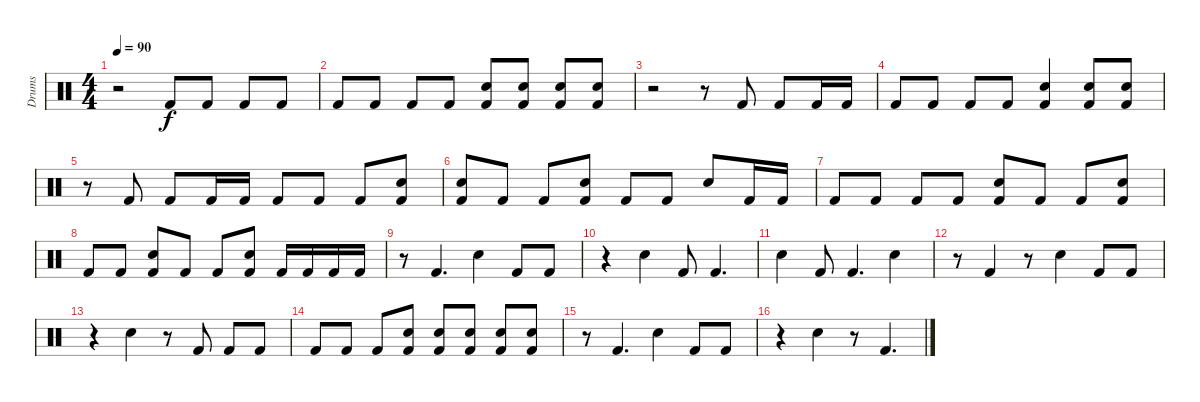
\track ("Drums" "Drums") {instrument percussion}
\staff {score}
\articulation defaults
\ts (4 4)
\tempo 90
\clef neutral
\ks c
r.2{dy f} "Kick (hit) 2".8 "Kick (hit) 2".8 "Kick (hit) 2".8 "Kick (hit) 2".8 |
"Kick (hit) 2".8 "Kick (hit) 2".8 "Kick (hit) 2".8 "Kick (hit) 2".8 ("Kick (hit) 2" "Snare (hit) 2").8 ("Kick (hit) 2" "Snare (hit) 2").8 ("Kick (hit) 2" "Snare (hit) 2").8 ("Kick (hit) 2" "Snare (hit) 2").8 |
r.2 r.8 "Kick (hit) 2".8 "Kick (hit) 2".8 "Kick (hit) 2".16 "Kick (hit) 2".16 |
"Kick (hit) 2".8 "Kick (hit) 2".8 "Kick (hit) 2".8 "Kick (hit) 2".8 ("Kick (hit) 2" "Snare (hit) 2").4 ("Kick (hit) 2" "Snare (hit) 2").8 ("Kick (hit) 2" "Snare (hit) 2").8 |
r.8 "Kick (hit) 2".8 "Kick (hit) 2".8 "Kick (hit) 2".16 "Kick (hit) 2".16 "Kick (hit) 2".8 "Kick (hit) 2".8 "Kick (hit) 2".8 ("Kick (hit) 2" "Snare (hit) 2").8 |
("Kick (hit) 2" "Snare (hit) 2").8 "Kick (hit) 2".8 "Kick (hit) 2".8 ("Kick (hit) 2" "Snare (hit) 2").8 "Kick (hit) 2".8 "Kick (hit) 2".8 "Snare (hit) 2".8 "Kick (hit) 2".16 "Kick (hit) 2".16 |
"Kick (hit) 2".8 "Kick (hit) 2".8 "Kick (hit) 2".8 "Kick (hit) 2".8 ("Kick (hit) 2" "Snare (hit) 2").8 "Kick (hit) 2".8 "Kick (hit) 2".8 ("Kick (hit) 2" "Snare (hit) 2").8 |
"Kick (hit) 2".8 "Kick (hit) 2".8 ("Kick (hit) 2" "Snare (hit) 2").8 "Kick (hit) 2".8 "Kick (hit) 2".8 ("Kick (hit) 2" "Snare (hit) 2").8 "Kick (hit) 2".16 "Kick (hit) 2".16 "Kick (hit) 2".16 "Kick (hit) 2".16 |
r.8 "Kick (hit) 2".4{d} "Snare (hit) 2".4 "Kick (hit) 2".8 "Kick (hit) 2".8 |
r.4 "Snare (hit) 2".4 "Kick (hit) 2".8 "Kick (hit) 2".4{d} |
"Snare (hit) 2".4 "Kick (hit) 2".8 "Kick (hit) 2".4{d} "Snare (hit) 2".4 |
r.8 "Kick (hit) 2".4 r.8 "Snare (hit) 2".4 "Kick (hit) 2".8 "Kick (hit) 2".8 |
r.4 "Snare (hit) 2".4 r.8 "Kick (hit) 2".8 "Kick (hit) 2".8 "Kick (hit) 2".8 |
"Kick (hit) 2".8 "Kick (hit) 2".8 "Kick (hit) 2".8 ("Kick (hit) 2" "Snare (hit) 2").8 ("Kick (hit) 2" "Snare (hit) 2").8 ("Kick (hit) 2" "Snare (hit) 2").8 ("Kick (hit) 2" "Snare (hit) 2").8 ("Kick (hit) 2" "Snare (hit) 2").8 |
r.8 "Kick (hit) 2".4{d} "Snare (hit) 2".4 "Kick (hit) 2".8 "Kick (hit) 2".8 |
r.4 "Snare (hit) 2".4 r.8 "Kick (hit) 2".4{d}
